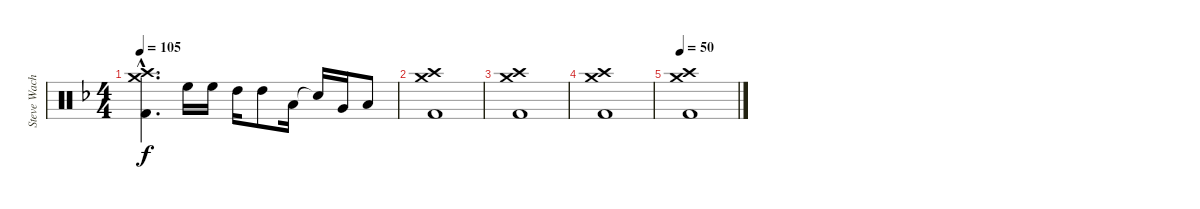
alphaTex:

\track ("Steve Wacholz" "Steve Wach") {instrument percussion}
\staff {score}
\articulation defaults
\ts (4 4)
\tempo 105
\clef neutral
\ks f
("Crash medium (hit)"{hac} "Crash high (hit)"{hac} "Kick (hit) 2"{hac}).4{d dy f} "High Floor Tom (hit)".16 "High Floor Tom (hit)".16 "High Tom (hit)".16 "High Tom (hit)".8 "Low Tom (hit)".16 "Snare (hit)"{t}.16 "Very Low Tom (hit)".16 "Low Floor Tom (hit)".8 |
("Crash medium (hit)" "Crash high (hit)" "Kick (hit) 2").1 |
("Crash medium (hit)" "Crash high (hit)" "Kick (hit) 2").1 |
("Crash medium (hit)" "Crash high (hit)" "Kick (hit) 2").1 |
\tempo 50
("Crash medium (hit)" "Crash high (hit)" "Kick (hit) 2").1
